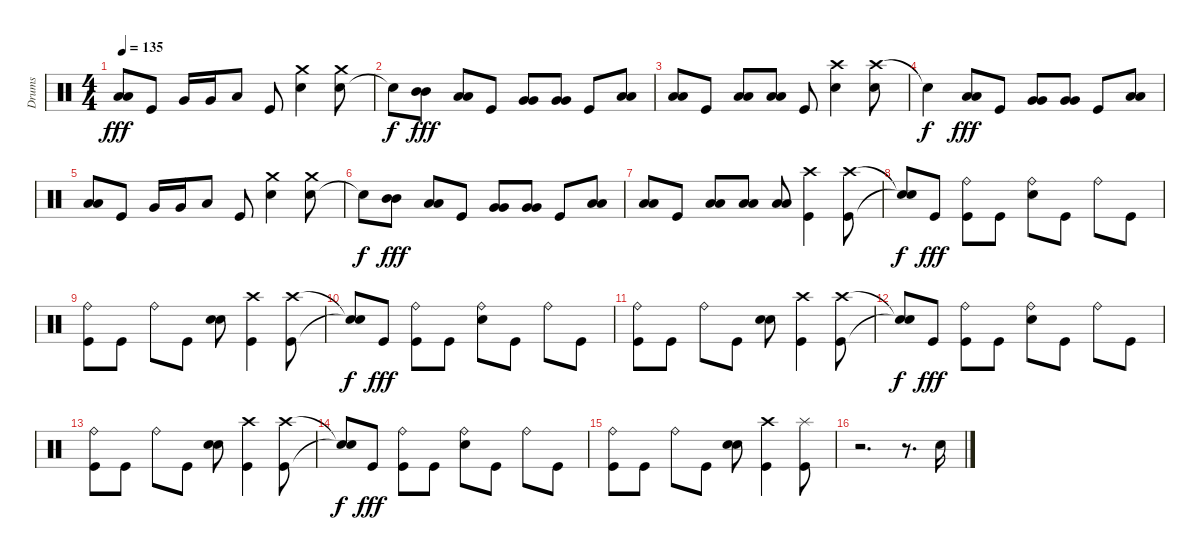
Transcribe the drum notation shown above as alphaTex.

\track ("Drums" "Drums") {instrument percussion}
\staff {score}
\articulation defaults
\ts (4 4)
\tempo 135
\clef neutral
\ks c
("Low Floor Tom (hit)" "Low Floor Tom (hit)").8{dy fff} "Kick (hit)".8 "Very Low Tom (hit)".16 "Very Low Tom (hit)".16 "Low Floor Tom (hit)".8 "Kick (hit)".8 ("Electric Snare (hit)" "Crash medium (hit)").4 ("Electric Snare (hit)" "Crash medium (hit)").8 |
"Snare (hit)"{t}.8{dy f} ("Mid Tom (hit)" "Mid Tom (hit)").8{dy fff} ("Low Tom (hit)" "Low Tom (hit)").8 "Kick (hit)".8 ("Very Low Tom (hit)" "Very Low Tom (hit)").8 ("Very Low Tom (hit)" "Very Low Tom (hit)").8 "Kick (hit)".8 ("Low Floor Tom (hit)" "Low Floor Tom (hit)").8 |
("Low Floor Tom (hit)" "Low Floor Tom (hit)").8 "Kick (hit)".8 ("Low Floor Tom (hit)" "Low Floor Tom (hit)").8 ("Low Floor Tom (hit)" "Low Floor Tom (hit)").8 "Kick (hit)".8 ("Crash high (hit)" "Electric Snare (hit)").4 ("Crash high (hit)" "Electric Snare (hit)").8 |
"Snare (hit)"{t}.4{dy f} ("Low Tom (hit)" "Low Tom (hit)").8{dy fff} "Kick (hit)".8 ("Very Low Tom (hit)" "Very Low Tom (hit)").8 ("Very Low Tom (hit)" "Very Low Tom (hit)").8 "Kick (hit)".8 ("Low Floor Tom (hit)" "Low Floor Tom (hit)").8 |
("Low Floor Tom (hit)" "Low Floor Tom (hit)").8 "Kick (hit)".8 "Very Low Tom (hit)".16 "Very Low Tom (hit)".16 "Low Floor Tom (hit)".8 "Kick (hit)".8 ("Electric Snare (hit)" "Crash medium (hit)").4 ("Electric Snare (hit)" "Crash medium (hit)").8 |
"Snare (hit)"{t}.8{dy f} ("Mid Tom (hit)" "Mid Tom (hit)").8{dy fff} ("Low Tom (hit)" "Low Tom (hit)").8 "Kick (hit)".8 ("Very Low Tom (hit)" "Very Low Tom (hit)").8 ("Very Low Tom (hit)" "Very Low Tom (hit)").8 "Kick (hit)".8 ("Low Floor Tom (hit)" "Low Floor Tom (hit)").8 |
("Low Floor Tom (hit)" "Low Floor Tom (hit)").8 "Kick (hit)".8 ("Low Floor Tom (hit)" "Low Floor Tom (hit)").8 ("Low Floor Tom (hit)" "Low Floor Tom (hit)").8 ("Low Floor Tom (hit)" "Low Floor Tom (hit)").8 ("Crash high (hit)" "Kick (hit)").4 ("Kick (hit)" "Crash high (hit)").8 |
("Snare (hit)"{t} "Snare (hit)"{t}).8{dy f} "Kick (hit)".8{dy fff} ("Ride (bell)" "Kick (hit)").8 "Kick (hit)".8 ("Electric Snare (hit)" "Ride (bell)").8 "Kick (hit)".8 "Ride (bell)".8 "Kick (hit)".8 |
("Ride (bell)" "Kick (hit)").8 "Kick (hit)".8 "Ride (bell)".8 "Kick (hit)".8 ("Electric Snare (hit)" "Electric Snare (hit)").8 ("Crash high (hit)" "Kick (hit)").4 ("Kick (hit)" "Crash high (hit)").8 |
("Snare (hit)"{t} "Snare (hit)"{t}).8{dy f} "Kick (hit)".8{dy fff} ("Ride (bell)" "Kick (hit)").8 "Kick (hit)".8 ("Electric Snare (hit)" "Ride (bell)").8 "Kick (hit)".8 "Ride (bell)".8 "Kick (hit)".8 |
("Ride (bell)" "Kick (hit)").8 "Kick (hit)".8 "Ride (bell)".8 "Kick (hit)".8 ("Electric Snare (hit)" "Electric Snare (hit)").8 ("Crash high (hit)" "Kick (hit)").4 ("Kick (hit)" "Crash high (hit)").8 |
("Snare (hit)"{t} "Snare (hit)"{t}).8{dy f} "Kick (hit)".8{dy fff} ("Ride (bell)" "Kick (hit)").8 "Kick (hit)".8 ("Electric Snare (hit)" "Ride (bell)").8 "Kick (hit)".8 "Ride (bell)".8 "Kick (hit)".8 |
("Ride (bell)" "Kick (hit)").8 "Kick (hit)".8 "Ride (bell)".8 "Kick (hit)".8 ("Electric Snare (hit)" "Electric Snare (hit)").8 ("Crash high (hit)" "Kick (hit)").4 ("Kick (hit)" "Crash high (hit)").8 |
("Snare (hit)"{t} "Snare (hit)"{t}).8{dy f} "Kick (hit)".8{dy fff} ("Ride (bell)" "Kick (hit)").8 "Kick (hit)".8 ("Electric Snare (hit)" "Ride (bell)").8 "Kick (hit)".8 "Ride (bell)".8 "Kick (hit)".8 |
("Ride (bell)" "Kick (hit)").8 "Kick (hit)".8 "Ride (bell)".8 "Kick (hit)".8 ("Electric Snare (hit)" "Electric Snare (hit)").8 ("Crash high (hit)" "Kick (hit)").4 ("Splash (hit)" "Kick (hit)").8 |
r.2{d} r.8{d} "Electric Snare (hit)".16
